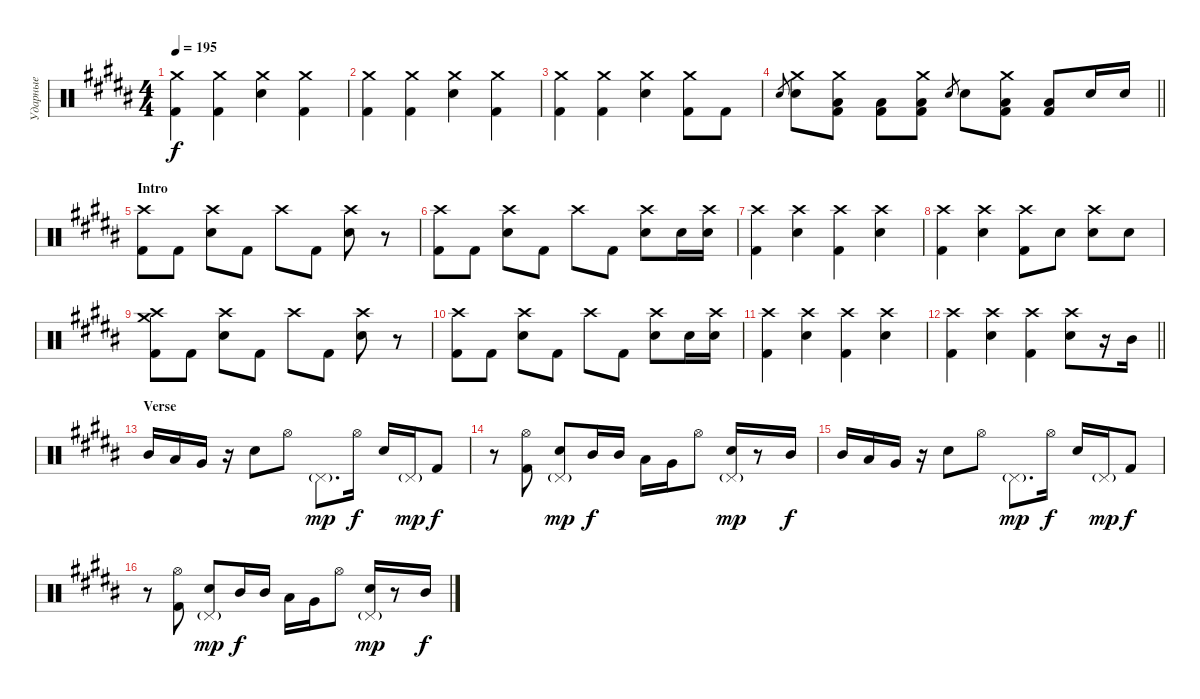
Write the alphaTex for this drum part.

\track ("Ударные" "Ударные") {instrument percussion}
\staff {score}
\articulation defaults
\ts (4 4)
\tempo 195
\clef neutral
\ks b
("Crash medium (hit)" "Kick (hit) 2").4{dy f} ("Crash medium (hit)" "Kick (hit) 2").4 ("Crash medium (hit)" "Electric Snare (hit)").4 ("Crash medium (hit)" "Kick (hit) 2").4 |
("Crash medium (hit)" "Kick (hit) 2").4 ("Crash medium (hit)" "Kick (hit) 2").4 ("Crash medium (hit)" "Electric Snare (hit)").4 ("Crash medium (hit)" "Kick (hit) 2").4 |
("Crash medium (hit)" "Kick (hit) 2").4 ("Crash medium (hit)" "Kick (hit) 2").4 ("Crash medium (hit)" "Electric Snare (hit)").4 ("Crash medium (hit)" "Kick (hit) 2").8 "Kick (hit) 2".8 |
\barLineRight lightlight "Electric Snare (hit)".8{gr}
("Crash medium (hit)" "Electric Snare (hit)").8 ("Crash medium (hit)" "Low Tom (hit)" "Kick (hit) 2").8 ("Low Tom (hit)" "Kick (hit) 2").8 ("Crash medium (hit)" "Low Tom (hit)" "Kick (hit) 2").8 "Electric Snare (hit)".8{gr} "Electric Snare (hit)".8 ("Crash medium (hit)" "Low Tom (hit)" "Kick (hit) 2").8 ("Low Tom (hit)" "Kick (hit) 2").8 "Electric Snare (hit)".16 "Electric Snare (hit)".16 |
\section ("" "Intro")
("Crash high (hit)" "Kick (hit) 2").8 "Kick (hit) 2".8 ("Crash high (hit)" "Electric Snare (hit)").8 "Kick (hit) 2".8 "Crash high (hit)".8 "Kick (hit) 2".8 ("Crash high (hit)" "Electric Snare (hit)").8 r.8 |
("Crash high (hit)" "Kick (hit) 2").8 "Kick (hit) 2".8 ("Crash high (hit)" "Electric Snare (hit)").8 "Kick (hit) 2".8 "Crash high (hit)".8 "Kick (hit) 2".8 ("Crash high (hit)" "Electric Snare (hit)").8 "Electric Snare (hit)".16 ("Crash high (hit)" "Electric Snare (hit)").16 |
("Crash high (hit)" "Kick (hit) 2").4 ("Crash high (hit)" "Electric Snare (hit)").4 ("Crash high (hit)" "Kick (hit) 2").4 ("Crash high (hit)" "Electric Snare (hit)").4 |
("Crash high (hit)" "Kick (hit) 2").4 ("Crash high (hit)" "Electric Snare (hit)").4 ("Crash high (hit)" "Kick (hit) 2").8 "Electric Snare (hit)".8 ("Crash high (hit)" "Electric Snare (hit)").8 "Electric Snare (hit)".8 |
("Crash medium (hit)" "Crash high (hit)" "Kick (hit) 2").8 "Kick (hit) 2".8 ("Crash high (hit)" "Electric Snare (hit)").8 "Kick (hit) 2".8 "Crash high (hit)".8 "Kick (hit) 2".8 ("Crash high (hit)" "Electric Snare (hit)").8 r.8 |
("Crash high (hit)" "Kick (hit) 2").8 "Kick (hit) 2".8 ("Crash high (hit)" "Electric Snare (hit)").8 "Kick (hit) 2".8 "Crash high (hit)".8 "Kick (hit) 2".8 ("Crash high (hit)" "Electric Snare (hit)").8 "Electric Snare (hit)".16 ("Crash high (hit)" "Electric Snare (hit)").16 |
("Crash high (hit)" "Kick (hit) 2").4 ("Crash high (hit)" "Electric Snare (hit)").4 ("Crash high (hit)" "Kick (hit) 2").4 ("Crash high (hit)" "Electric Snare (hit)").4 |
\barLineRight lightlight
("Crash high (hit)" "Kick (hit) 2").4 ("Crash high (hit)" "Electric Snare (hit)").4 ("Crash high (hit)" "Kick (hit) 2").4 ("Crash high (hit)" "Electric Snare (hit)").8 r.16 "Mid Tom (hit)".16 |
\section ("" "Verse")
"Mid Tom (hit)".16 "Low Tom (hit)".16 "Very Low Tom (hit)".16 r.16 "Electric Snare (hit)".8 "Hi-Hat (open)".8 "Pedal Hi-Hat (hit)"{g}.8{d dy mp} "Hi-Hat (open)".16{dy f} "Electric Snare (hit)".16 "Pedal Hi-Hat (hit)"{g}.16{dy mp} "Kick (hit) 2".8{dy f} |
r.8 ("Hi-Hat (open)" "Kick (hit) 2").8 ("Pedal Hi-Hat (hit)"{g} "Electric Snare (hit)").8{dy mp} "Mid Tom (hit)".16{dy f} "Mid Tom (hit)".16 "Low Tom (hit)".16 "Very Low Tom (hit)".16 "Hi-Hat (open)".8 ("Pedal Hi-Hat (hit)"{g} "Electric Snare (hit)").16{dy mp} r.8 "Mid Tom (hit)".16{dy f} |
"Mid Tom (hit)".16 "Low Tom (hit)".16 "Very Low Tom (hit)".16 r.16 "Electric Snare (hit)".8 "Hi-Hat (open)".8 "Pedal Hi-Hat (hit)"{g}.8{d dy mp} "Hi-Hat (open)".16{dy f} "Electric Snare (hit)".16 "Pedal Hi-Hat (hit)"{g}.16{dy mp} "Kick (hit) 2".8{dy f} |
r.8 ("Hi-Hat (open)" "Kick (hit) 2").8 ("Pedal Hi-Hat (hit)"{g} "Electric Snare (hit)").8{dy mp} "Mid Tom (hit)".16{dy f} "Mid Tom (hit)".16 "Low Tom (hit)".16 "Very Low Tom (hit)".16 "Hi-Hat (open)".8 ("Pedal Hi-Hat (hit)"{g} "Electric Snare (hit)").16{dy mp} r.8 "Mid Tom (hit)".16{dy f}
